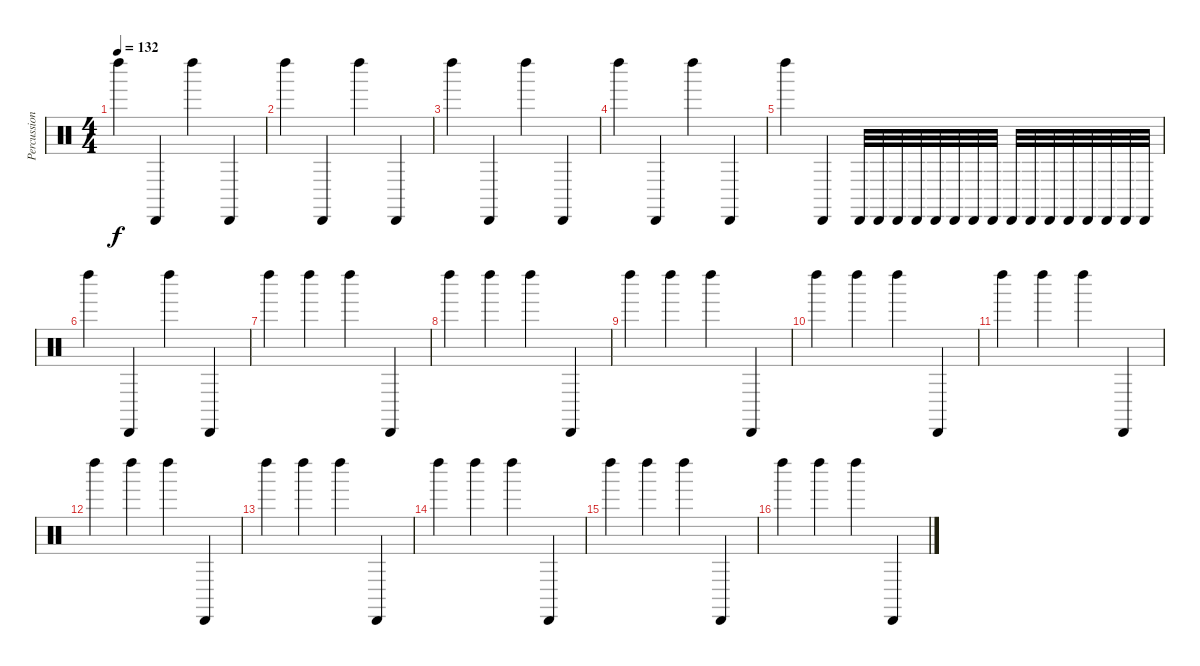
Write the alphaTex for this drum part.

\track ("Percussion" "Percussion") {instrument percussion}
\staff {score}
\articulation defaults
\ts (4 4)
\tempo 132
\clef neutral
\ks c "Left Maraca (hit)".4{dy f} "Cabasa (hit)".4 "Left Maraca (hit)".4 "Cabasa (hit)".4
|
"Left Maraca (hit)".4 "Cabasa (hit)".4 "Left Maraca (hit)".4 "Cabasa (hit)".4 |
"Left Maraca (hit)".4 "Cabasa (hit)".4 "Left Maraca (hit)".4 "Cabasa (hit)".4 |
"Left Maraca (hit)".4 "Cabasa (hit)".4 "Left Maraca (hit)".4 "Cabasa (hit)".4 |
"Left Maraca (hit)".4 "Cabasa (hit)".4 "Cabasa (hit)".32 "Cabasa (hit)".32 "Cabasa (hit)".32 "Cabasa (hit)".32 "Cabasa (hit)".32 "Cabasa (hit)".32 "Cabasa (hit)".32 "Cabasa (hit)".32 "Cabasa (hit)".32 "Cabasa (hit)".32 "Cabasa (hit)".32 "Cabasa (hit)".32 "Cabasa (hit)".32 "Cabasa (hit)".32 "Cabasa (hit)".32 "Cabasa (hit)".32 |
"Left Maraca (hit)".4 "Cabasa (hit)".4 "Left Maraca (hit)".4 "Cabasa (hit)".4 |
"Left Maraca (hit)".4 "Left Maraca (hit)".4 "Left Maraca (hit)".4 "Cabasa (hit)".4 |
"Left Maraca (hit)".4 "Left Maraca (hit)".4 "Left Maraca (hit)".4 "Cabasa (hit)".4 |
"Left Maraca (hit)".4 "Left Maraca (hit)".4 "Left Maraca (hit)".4 "Cabasa (hit)".4 |
"Left Maraca (hit)".4 "Left Maraca (hit)".4 "Left Maraca (hit)".4 "Cabasa (hit)".4 |
"Left Maraca (hit)".4 "Left Maraca (hit)".4 "Left Maraca (hit)".4 "Cabasa (hit)".4 |
"Left Maraca (hit)".4 "Left Maraca (hit)".4 "Left Maraca (hit)".4 "Cabasa (hit)".4 |
"Left Maraca (hit)".4 "Left Maraca (hit)".4 "Left Maraca (hit)".4 "Cabasa (hit)".4 |
"Left Maraca (hit)".4 "Left Maraca (hit)".4 "Left Maraca (hit)".4 "Cabasa (hit)".4 |
"Left Maraca (hit)".4 "Left Maraca (hit)".4 "Left Maraca (hit)".4 "Cabasa (hit)".4 |
"Left Maraca (hit)".4 "Left Maraca (hit)".4 "Left Maraca (hit)".4 "Cabasa (hit)".4
